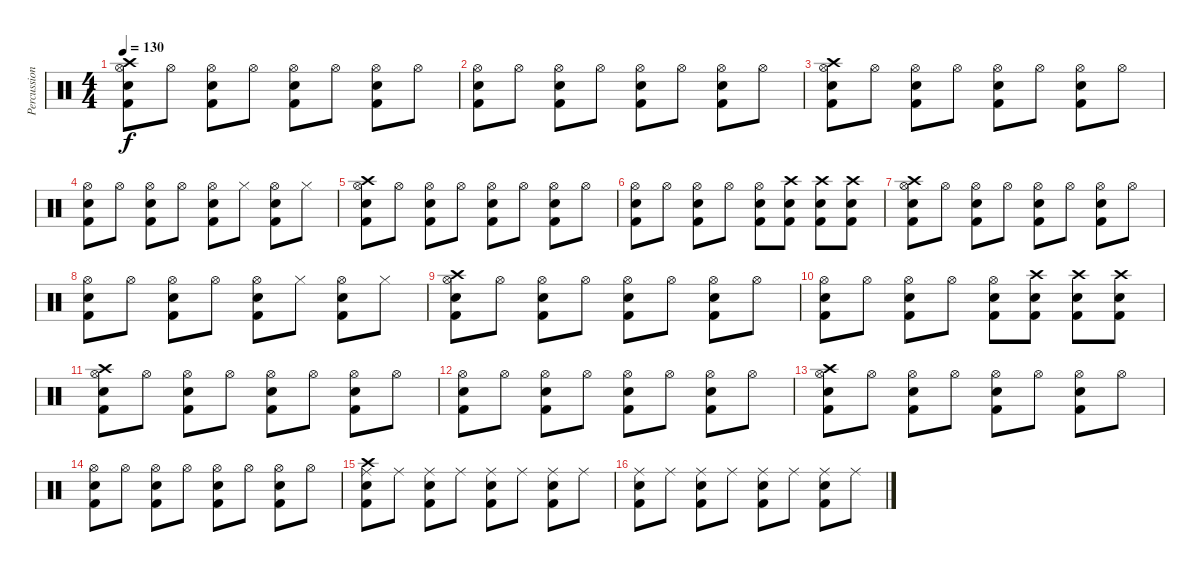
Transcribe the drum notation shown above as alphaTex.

\track ("Percussion" "Percussion") {instrument percussion}
\staff {score}
\articulation defaults
\ts (4 4)
\tempo 130
\clef neutral
\ks c
("Hi-Hat (open)" "Crash high (hit)" "Electric Snare (hit)" "Kick (hit) 2").8{dy f} "Hi-Hat (open)".8 ("Hi-Hat (open)" "Electric Snare (hit)" "Kick (hit) 2").8 "Hi-Hat (open)".8 ("Hi-Hat (open)" "Electric Snare (hit)" "Kick (hit) 2").8 "Hi-Hat (open)".8 ("Hi-Hat (open)" "Electric Snare (hit)" "Kick (hit) 2").8 "Hi-Hat (open)".8 |
("Hi-Hat (open)" "Electric Snare (hit)" "Kick (hit) 2").8 "Hi-Hat (open)".8 ("Hi-Hat (open)" "Electric Snare (hit)" "Kick (hit) 2").8 "Hi-Hat (open)".8 ("Hi-Hat (open)" "Electric Snare (hit)" "Kick (hit) 2").8 "Hi-Hat (open)".8 ("Hi-Hat (open)" "Electric Snare (hit)" "Kick (hit) 2").8 "Hi-Hat (open)".8 |
("Hi-Hat (open)" "Crash high (hit)" "Electric Snare (hit)" "Kick (hit) 2").8 "Hi-Hat (open)".8 ("Hi-Hat (open)" "Electric Snare (hit)" "Kick (hit) 2").8 "Hi-Hat (open)".8 ("Hi-Hat (open)" "Electric Snare (hit)" "Kick (hit) 2").8 "Hi-Hat (open)".8 ("Hi-Hat (open)" "Electric Snare (hit)" "Kick (hit) 2").8 "Hi-Hat (open)".8 |
("Hi-Hat (open)" "Electric Snare (hit)" "Kick (hit) 2").8 "Hi-Hat (open)".8 ("Hi-Hat (open)" "Electric Snare (hit)" "Kick (hit) 2").8 "Hi-Hat (open)".8 ("Hi-Hat (open)" "Electric Snare (hit)" "Kick (hit) 2").8 "Hi-Hat (closed)".8 ("Hi-Hat (open)" "Electric Snare (hit)" "Kick (hit) 2").8 "Hi-Hat (closed)".8 |
("Hi-Hat (open)" "Crash high (hit)" "Electric Snare (hit)" "Kick (hit) 2").8 "Hi-Hat (open)".8 ("Hi-Hat (open)" "Electric Snare (hit)" "Kick (hit) 2").8 "Hi-Hat (open)".8 ("Hi-Hat (open)" "Electric Snare (hit)" "Kick (hit) 2").8 "Hi-Hat (open)".8 ("Hi-Hat (open)" "Electric Snare (hit)" "Kick (hit) 2").8 "Hi-Hat (open)".8 |
("Hi-Hat (open)" "Electric Snare (hit)" "Kick (hit) 2").8 "Hi-Hat (open)".8 ("Hi-Hat (open)" "Electric Snare (hit)" "Kick (hit) 2").8 "Hi-Hat (open)".8 ("Hi-Hat (open)" "Electric Snare (hit)" "Kick (hit) 2").8 ("Crash high (hit)" "Electric Snare (hit)" "Kick (hit) 2").8 ("Crash high (hit)" "Electric Snare (hit)" "Kick (hit) 2").8 ("Crash high (hit)" "Electric Snare (hit)" "Kick (hit) 2").8 |
("Hi-Hat (open)" "Crash high (hit)" "Electric Snare (hit)" "Kick (hit) 2").8 "Hi-Hat (open)".8 ("Hi-Hat (open)" "Electric Snare (hit)" "Kick (hit) 2").8 "Hi-Hat (open)".8 ("Hi-Hat (open)" "Electric Snare (hit)" "Kick (hit) 2").8 "Hi-Hat (open)".8 ("Hi-Hat (open)" "Electric Snare (hit)" "Kick (hit) 2").8 "Hi-Hat (open)".8 |
("Hi-Hat (open)" "Electric Snare (hit)" "Kick (hit) 2").8 "Hi-Hat (open)".8 ("Hi-Hat (open)" "Electric Snare (hit)" "Kick (hit) 2").8 "Hi-Hat (open)".8 ("Hi-Hat (open)" "Electric Snare (hit)" "Kick (hit) 2").8 "Hi-Hat (closed)".8 ("Hi-Hat (open)" "Electric Snare (hit)" "Kick (hit) 2").8 "Hi-Hat (closed)".8 |
("Hi-Hat (open)" "Crash high (hit)" "Electric Snare (hit)" "Kick (hit) 2").8 "Hi-Hat (open)".8 ("Hi-Hat (open)" "Electric Snare (hit)" "Kick (hit) 2").8 "Hi-Hat (open)".8 ("Hi-Hat (open)" "Electric Snare (hit)" "Kick (hit) 2").8 "Hi-Hat (open)".8 ("Hi-Hat (open)" "Electric Snare (hit)" "Kick (hit) 2").8 "Hi-Hat (open)".8 |
("Hi-Hat (open)" "Electric Snare (hit)" "Kick (hit) 2").8 "Hi-Hat (open)".8 ("Hi-Hat (open)" "Electric Snare (hit)" "Kick (hit) 2").8 "Hi-Hat (open)".8 ("Hi-Hat (open)" "Electric Snare (hit)" "Kick (hit) 2").8 ("Crash high (hit)" "Electric Snare (hit)" "Kick (hit) 2").8 ("Crash high (hit)" "Electric Snare (hit)" "Kick (hit) 2").8 ("Crash high (hit)" "Electric Snare (hit)" "Kick (hit) 2").8 |
("Hi-Hat (open)" "Crash high (hit)" "Electric Snare (hit)" "Kick (hit) 2").8 "Hi-Hat (open)".8 ("Hi-Hat (open)" "Electric Snare (hit)" "Kick (hit) 2").8 "Hi-Hat (open)".8 ("Hi-Hat (open)" "Electric Snare (hit)" "Kick (hit) 2").8 "Hi-Hat (open)".8 ("Hi-Hat (open)" "Electric Snare (hit)" "Kick (hit) 2").8 "Hi-Hat (open)".8 |
("Hi-Hat (open)" "Electric Snare (hit)" "Kick (hit) 2").8 "Hi-Hat (open)".8 ("Hi-Hat (open)" "Electric Snare (hit)" "Kick (hit) 2").8 "Hi-Hat (open)".8 ("Hi-Hat (open)" "Electric Snare (hit)" "Kick (hit) 2").8 "Hi-Hat (open)".8 ("Hi-Hat (open)" "Electric Snare (hit)" "Kick (hit) 2").8 "Hi-Hat (open)".8 |
("Hi-Hat (open)" "Crash high (hit)" "Electric Snare (hit)" "Kick (hit) 2").8 "Hi-Hat (open)".8 ("Hi-Hat (open)" "Electric Snare (hit)" "Kick (hit) 2").8 "Hi-Hat (open)".8 ("Hi-Hat (open)" "Electric Snare (hit)" "Kick (hit) 2").8 "Hi-Hat (open)".8 ("Hi-Hat (open)" "Electric Snare (hit)" "Kick (hit) 2").8 "Hi-Hat (open)".8 |
("Hi-Hat (open)" "Electric Snare (hit)" "Kick (hit) 2").8 "Hi-Hat (open)".8 ("Hi-Hat (open)" "Electric Snare (hit)" "Kick (hit) 2").8 "Hi-Hat (open)".8 ("Hi-Hat (open)" "Electric Snare (hit)" "Kick (hit) 2").8 "Hi-Hat (open)".8 ("Hi-Hat (open)" "Electric Snare (hit)" "Kick (hit) 2").8 "Hi-Hat (open)".8 |
("Ride (middle)" "Crash high (hit)" "Electric Snare (hit)" "Kick (hit) 2").8 "Ride (middle)".8 ("Ride (middle)" "Electric Snare (hit)" "Kick (hit) 2").8 "Ride (middle)".8 ("Ride (middle)" "Electric Snare (hit)" "Kick (hit) 2").8 "Ride (middle)".8 ("Ride (middle)" "Electric Snare (hit)" "Kick (hit) 2").8 "Ride (middle)".8 |
("Ride (middle)" "Electric Snare (hit)" "Kick (hit) 2").8 "Ride (middle)".8 ("Ride (middle)" "Electric Snare (hit)" "Kick (hit) 2").8 "Ride (middle)".8 ("Ride (middle)" "Electric Snare (hit)" "Kick (hit) 2").8 "Ride (middle)".8 ("Ride (middle)" "Electric Snare (hit)" "Kick (hit) 2").8 "Ride (middle)".8
